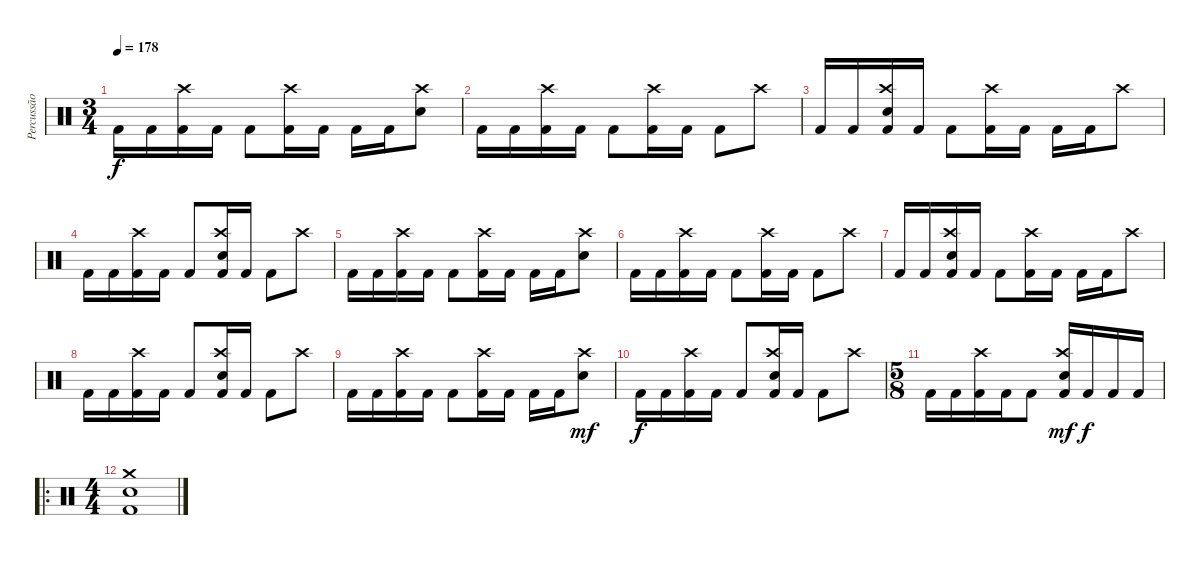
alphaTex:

\track ("Percussão" "Percussão") {instrument percussion}
\staff {score}
\articulation defaults
\ts (3 4)
\tempo 178
\clef neutral
\ks c "Kick (hit) 2".16{dy f} "Kick (hit) 2".16
("Crash high (hit)" "Kick (hit) 2").16 "Kick (hit) 2".16 "Kick (hit) 2".8 ("Crash high (hit)" "Kick (hit) 2").16 "Kick (hit) 2".16 "Kick (hit) 2".16 "Kick (hit) 2".16 ("Crash high (hit)" "Snare (hit) 2").8 |
"Kick (hit) 2".16 "Kick (hit) 2".16 ("Crash high (hit)" "Kick (hit) 2").16 "Kick (hit) 2".16 "Kick (hit) 2".8 ("Crash high (hit)" "Kick (hit) 2").16 "Kick (hit) 2".16 "Kick (hit) 2".8 "Crash high (hit)".8 |
"Kick (hit) 2".16 "Kick (hit) 2".16 ("Crash high (hit)" "Snare (hit) 2" "Kick (hit) 2").16 "Kick (hit) 2".16 "Kick (hit) 2".8 ("Crash high (hit)" "Kick (hit) 2").16 "Kick (hit) 2".16 "Kick (hit) 2".16 "Kick (hit) 2".16 "Crash high (hit)".8 |
"Kick (hit) 2".16 "Kick (hit) 2".16 ("Crash high (hit)" "Kick (hit) 2").16 "Kick (hit) 2".16 "Kick (hit) 2".8 ("Crash high (hit)" "Snare (hit) 2" "Kick (hit) 2").16 "Kick (hit) 2".16 "Kick (hit) 2".8 "Crash high (hit)".8 |
"Kick (hit) 2".16 "Kick (hit) 2".16 ("Crash high (hit)" "Kick (hit) 2").16 "Kick (hit) 2".16 "Kick (hit) 2".8 ("Crash high (hit)" "Kick (hit) 2").16 "Kick (hit) 2".16 "Kick (hit) 2".16 "Kick (hit) 2".16 ("Crash high (hit)" "Snare (hit) 2").8 |
"Kick (hit) 2".16 "Kick (hit) 2".16 ("Crash high (hit)" "Kick (hit) 2").16 "Kick (hit) 2".16 "Kick (hit) 2".8 ("Crash high (hit)" "Kick (hit) 2").16 "Kick (hit) 2".16 "Kick (hit) 2".8 "Crash high (hit)".8 |
"Kick (hit) 2".16 "Kick (hit) 2".16 ("Crash high (hit)" "Snare (hit) 2" "Kick (hit) 2").16 "Kick (hit) 2".16 "Kick (hit) 2".8 ("Crash high (hit)" "Kick (hit) 2").16 "Kick (hit) 2".16 "Kick (hit) 2".16 "Kick (hit) 2".16 "Crash high (hit)".8 |
"Kick (hit) 2".16 "Kick (hit) 2".16 ("Crash high (hit)" "Kick (hit) 2").16 "Kick (hit) 2".16 "Kick (hit) 2".8 ("Crash high (hit)" "Snare (hit) 2" "Kick (hit) 2").16 "Kick (hit) 2".16 "Kick (hit) 2".8 "Crash high (hit)".8 |
"Kick (hit) 2".16 "Kick (hit) 2".16 ("Crash high (hit)" "Kick (hit) 2").16 "Kick (hit) 2".16 "Kick (hit) 2".8 ("Crash high (hit)" "Kick (hit) 2").16 "Kick (hit) 2".16 "Kick (hit) 2".16 "Kick (hit) 2".16 ("Crash high (hit)" "Snare (hit) 2").8{dy mf} |
"Kick (hit) 2".16{dy f} "Kick (hit) 2".16 ("Crash high (hit)" "Kick (hit) 2").16 "Kick (hit) 2".16 "Kick (hit) 2".8 ("Crash high (hit)" "Snare (hit) 2" "Kick (hit) 2").16 "Kick (hit) 2".16 "Kick (hit) 2".8 "Crash high (hit)".8 |
\ts (5 8)
"Kick (hit) 2".16 "Kick (hit) 2".16 ("Crash high (hit)" "Kick (hit) 2").16 "Kick (hit) 2".16 "Kick (hit) 2".8 ("Crash high (hit)" "Snare (hit) 2" "Kick (hit) 2").16{dy mf} "Kick (hit) 2".16{dy f} "Kick (hit) 2".16 "Kick (hit) 2".16 |
\ro
\ts (4 4)
("Crash medium (hit)" "Snare (hit) 2" "Kick (hit) 2").1
